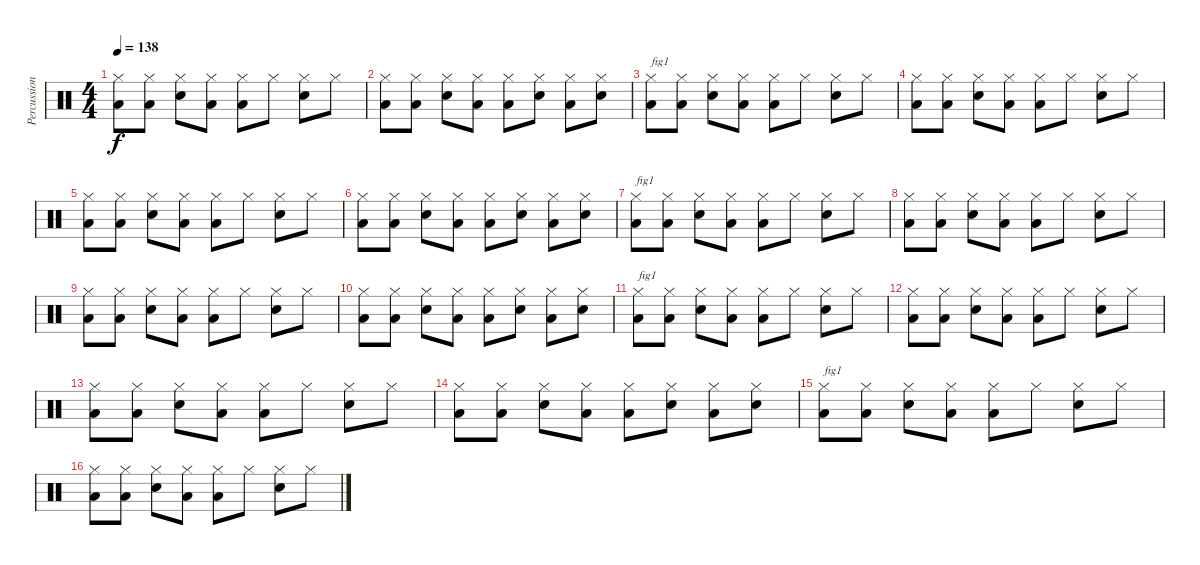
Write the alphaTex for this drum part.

\track ("Percussions" "Percussion") {instrument percussion}
\staff {score}
\articulation defaults
\ts (4 4)
\tempo 138
\clef neutral
\ks c
("Low Floor Tom (hit)" "Hi-Hat (closed)").8{dy f} ("Low Floor Tom (hit)" "Hi-Hat (closed)").8 ("Snare (hit) 2" "Hi-Hat (closed)").8 ("Low Floor Tom (hit)" "Hi-Hat (closed)").8 ("Low Floor Tom (hit)" "Hi-Hat (closed)").8 "Hi-Hat (closed)".8 ("Snare (hit) 2" "Hi-Hat (closed)").8 "Hi-Hat (closed)".8 |
("Low Floor Tom (hit)" "Hi-Hat (closed)").8 ("Low Floor Tom (hit)" "Hi-Hat (closed)").8 ("Snare (hit) 2" "Hi-Hat (closed)").8 ("Low Floor Tom (hit)" "Hi-Hat (closed)").8 ("Low Floor Tom (hit)" "Hi-Hat (closed)").8 ("Snare (hit) 2" "Hi-Hat (closed)").8 ("Low Floor Tom (hit)" "Hi-Hat (closed)").8 ("Snare (hit) 2" "Hi-Hat (closed)").8 |
("Low Floor Tom (hit)" "Hi-Hat (closed)").8{txt "fig1"} ("Low Floor Tom (hit)" "Hi-Hat (closed)").8 ("Snare (hit) 2" "Hi-Hat (closed)").8 ("Low Floor Tom (hit)" "Hi-Hat (closed)").8 ("Low Floor Tom (hit)" "Hi-Hat (closed)").8 "Hi-Hat (closed)".8 ("Snare (hit) 2" "Hi-Hat (closed)").8 "Hi-Hat (closed)".8 |
("Low Floor Tom (hit)" "Hi-Hat (closed)").8 ("Low Floor Tom (hit)" "Hi-Hat (closed)").8 ("Snare (hit) 2" "Hi-Hat (closed)").8 ("Low Floor Tom (hit)" "Hi-Hat (closed)").8 ("Low Floor Tom (hit)" "Hi-Hat (closed)").8 "Hi-Hat (closed)".8 ("Snare (hit) 2" "Hi-Hat (closed)").8 "Hi-Hat (closed)".8 |
("Low Floor Tom (hit)" "Hi-Hat (closed)").8 ("Low Floor Tom (hit)" "Hi-Hat (closed)").8 ("Snare (hit) 2" "Hi-Hat (closed)").8 ("Low Floor Tom (hit)" "Hi-Hat (closed)").8 ("Low Floor Tom (hit)" "Hi-Hat (closed)").8 "Hi-Hat (closed)".8 ("Snare (hit) 2" "Hi-Hat (closed)").8 "Hi-Hat (closed)".8 |
("Low Floor Tom (hit)" "Hi-Hat (closed)").8 ("Low Floor Tom (hit)" "Hi-Hat (closed)").8 ("Snare (hit) 2" "Hi-Hat (closed)").8 ("Low Floor Tom (hit)" "Hi-Hat (closed)").8 ("Low Floor Tom (hit)" "Hi-Hat (closed)").8 ("Snare (hit) 2" "Hi-Hat (closed)").8 ("Low Floor Tom (hit)" "Hi-Hat (closed)").8 ("Snare (hit) 2" "Hi-Hat (closed)").8 |
("Low Floor Tom (hit)" "Hi-Hat (closed)").8{txt "fig1"} ("Low Floor Tom (hit)" "Hi-Hat (closed)").8 ("Snare (hit) 2" "Hi-Hat (closed)").8 ("Low Floor Tom (hit)" "Hi-Hat (closed)").8 ("Low Floor Tom (hit)" "Hi-Hat (closed)").8 "Hi-Hat (closed)".8 ("Snare (hit) 2" "Hi-Hat (closed)").8 "Hi-Hat (closed)".8 |
("Low Floor Tom (hit)" "Hi-Hat (closed)").8 ("Low Floor Tom (hit)" "Hi-Hat (closed)").8 ("Snare (hit) 2" "Hi-Hat (closed)").8 ("Low Floor Tom (hit)" "Hi-Hat (closed)").8 ("Low Floor Tom (hit)" "Hi-Hat (closed)").8 "Hi-Hat (closed)".8 ("Snare (hit) 2" "Hi-Hat (closed)").8 "Hi-Hat (closed)".8 |
("Low Floor Tom (hit)" "Hi-Hat (closed)").8 ("Low Floor Tom (hit)" "Hi-Hat (closed)").8 ("Snare (hit) 2" "Hi-Hat (closed)").8 ("Low Floor Tom (hit)" "Hi-Hat (closed)").8 ("Low Floor Tom (hit)" "Hi-Hat (closed)").8 "Hi-Hat (closed)".8 ("Snare (hit) 2" "Hi-Hat (closed)").8 "Hi-Hat (closed)".8 |
("Low Floor Tom (hit)" "Hi-Hat (closed)").8 ("Low Floor Tom (hit)" "Hi-Hat (closed)").8 ("Snare (hit) 2" "Hi-Hat (closed)").8 ("Low Floor Tom (hit)" "Hi-Hat (closed)").8 ("Low Floor Tom (hit)" "Hi-Hat (closed)").8 ("Snare (hit) 2" "Hi-Hat (closed)").8 ("Low Floor Tom (hit)" "Hi-Hat (closed)").8 ("Snare (hit) 2" "Hi-Hat (closed)").8 |
("Low Floor Tom (hit)" "Hi-Hat (closed)").8{txt "fig1"} ("Low Floor Tom (hit)" "Hi-Hat (closed)").8 ("Snare (hit) 2" "Hi-Hat (closed)").8 ("Low Floor Tom (hit)" "Hi-Hat (closed)").8 ("Low Floor Tom (hit)" "Hi-Hat (closed)").8 "Hi-Hat (closed)".8 ("Snare (hit) 2" "Hi-Hat (closed)").8 "Hi-Hat (closed)".8 |
("Low Floor Tom (hit)" "Hi-Hat (closed)").8 ("Low Floor Tom (hit)" "Hi-Hat (closed)").8 ("Snare (hit) 2" "Hi-Hat (closed)").8 ("Low Floor Tom (hit)" "Hi-Hat (closed)").8 ("Low Floor Tom (hit)" "Hi-Hat (closed)").8 "Hi-Hat (closed)".8 ("Snare (hit) 2" "Hi-Hat (closed)").8 "Hi-Hat (closed)".8 |
("Low Floor Tom (hit)" "Hi-Hat (closed)").8 ("Low Floor Tom (hit)" "Hi-Hat (closed)").8 ("Snare (hit) 2" "Hi-Hat (closed)").8 ("Low Floor Tom (hit)" "Hi-Hat (closed)").8 ("Low Floor Tom (hit)" "Hi-Hat (closed)").8 "Hi-Hat (closed)".8 ("Snare (hit) 2" "Hi-Hat (closed)").8 "Hi-Hat (closed)".8 |
("Low Floor Tom (hit)" "Hi-Hat (closed)").8 ("Low Floor Tom (hit)" "Hi-Hat (closed)").8 ("Snare (hit) 2" "Hi-Hat (closed)").8 ("Low Floor Tom (hit)" "Hi-Hat (closed)").8 ("Low Floor Tom (hit)" "Hi-Hat (closed)").8 ("Snare (hit) 2" "Hi-Hat (closed)").8 ("Low Floor Tom (hit)" "Hi-Hat (closed)").8 ("Snare (hit) 2" "Hi-Hat (closed)").8 |
("Low Floor Tom (hit)" "Hi-Hat (closed)").8{txt "fig1"} ("Low Floor Tom (hit)" "Hi-Hat (closed)").8 ("Snare (hit) 2" "Hi-Hat (closed)").8 ("Low Floor Tom (hit)" "Hi-Hat (closed)").8 ("Low Floor Tom (hit)" "Hi-Hat (closed)").8 "Hi-Hat (closed)".8 ("Snare (hit) 2" "Hi-Hat (closed)").8 "Hi-Hat (closed)".8 |
("Low Floor Tom (hit)" "Hi-Hat (closed)").8 ("Low Floor Tom (hit)" "Hi-Hat (closed)").8 ("Snare (hit) 2" "Hi-Hat (closed)").8 ("Low Floor Tom (hit)" "Hi-Hat (closed)").8 ("Low Floor Tom (hit)" "Hi-Hat (closed)").8 "Hi-Hat (closed)".8 ("Snare (hit) 2" "Hi-Hat (closed)").8 "Hi-Hat (closed)".8
